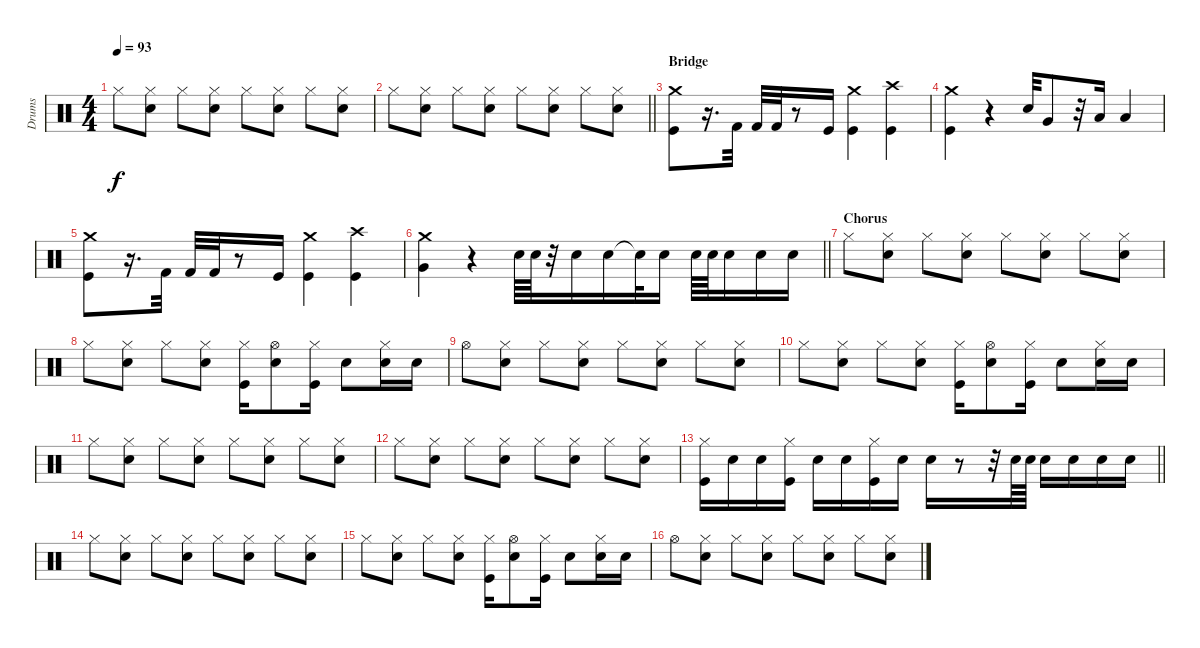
\track ("Drums" "Drums") {instrument percussion}
\staff {score}
\articulation defaults
\ts (4 4)
\tempo 93
\clef neutral
\ks c "Hi-Hat (closed)".8{dy f}
("Hi-Hat (closed)" "Snare (hit) 2").8 "Hi-Hat (closed)".8 ("Hi-Hat (closed)" "Snare (hit) 2").8 "Hi-Hat (closed)".8 ("Hi-Hat (closed)" "Snare (hit) 2").8 "Hi-Hat (closed)".8 ("Hi-Hat (closed)" "Snare (hit) 2").8 |
\barLineRight lightlight "Hi-Hat (closed)".8
("Hi-Hat (closed)" "Snare (hit) 2").8 "Hi-Hat (closed)".8 ("Hi-Hat (closed)" "Snare (hit) 2").8 "Hi-Hat (closed)".8 ("Hi-Hat (closed)" "Snare (hit) 2").8 "Hi-Hat (closed)".8 ("Hi-Hat (closed)" "Snare (hit) 2").8 |
\section ("" "Bridge")
("Kick (hit)" "Crash medium (hit)").8 r.16{d} "Kick (hit) 2".32 "Kick (hit) 2".32 "Kick (hit) 2".32 r.8 "Kick (hit)".16 ("Kick (hit)" "Crash medium (hit)").4 ("Kick (hit)" "Crash high (hit)").4 |
("Kick (hit)" "Crash medium (hit)").4 r.4 "Snare (hit) 2".32 "Very Low Tom (hit)".8 r.32 "Low Tom (hit)".16 "Low Floor Tom (hit)".4 |
("Kick (hit)" "Crash medium (hit)").8 r.16{d} "Kick (hit) 2".32 "Kick (hit) 2".32 "Kick (hit) 2".32 r.8 "Kick (hit)".16 ("Kick (hit)" "Crash medium (hit)").4 ("Kick (hit)" "Crash high (hit)").4 |
\barLineRight lightlight
("Crash medium (hit)" "Very Low Tom (hit)").4 r.4 "Electric Snare (hit)".64 "Electric Snare (hit)".64 r.32 "Electric Snare (hit)".16 "Electric Snare (hit)".16 "Snare (hit)"{t}.32 "Electric Snare (hit)".16 "Electric Snare (hit)".64 "Electric Snare (hit)".64 "Electric Snare (hit)".16 "Electric Snare (hit)".16 "Electric Snare (hit)".16 |
\section ("" "Chorus")
"Hi-Hat (closed)".8 ("Hi-Hat (closed)" "Snare (hit) 2").8 "Hi-Hat (closed)".8 ("Hi-Hat (closed)" "Snare (hit) 2").8 "Hi-Hat (closed)".8 ("Hi-Hat (closed)" "Snare (hit) 2").8 "Hi-Hat (closed)".8 ("Hi-Hat (closed)" "Snare (hit) 2").8 |
"Hi-Hat (closed)".8 ("Hi-Hat (closed)" "Snare (hit) 2").8 "Hi-Hat (closed)".8 ("Hi-Hat (closed)" "Snare (hit) 2").8 ("Hi-Hat (closed)" "Kick (hit)").16 ("Hi-Hat (open)" "Electric Snare (hit)").8 ("Hi-Hat (closed)" "Kick (hit)").16 "Electric Snare (hit)".8 ("Hi-Hat (closed)" "Electric Snare (hit)").16 "Electric Snare (hit)".16 |
"Hi-Hat (open)".8 ("Hi-Hat (closed)" "Snare (hit) 2").8 "Hi-Hat (closed)".8 ("Hi-Hat (closed)" "Snare (hit) 2").8 "Hi-Hat (closed)".8 ("Hi-Hat (closed)" "Snare (hit) 2").8 "Hi-Hat (closed)".8 ("Hi-Hat (closed)" "Snare (hit) 2").8 |
"Hi-Hat (closed)".8 ("Hi-Hat (closed)" "Snare (hit) 2").8 "Hi-Hat (closed)".8 ("Hi-Hat (closed)" "Snare (hit) 2").8 ("Hi-Hat (closed)" "Kick (hit)").16 ("Hi-Hat (open)" "Electric Snare (hit)").8 ("Hi-Hat (closed)" "Kick (hit)").16 "Electric Snare (hit)".8 ("Hi-Hat (closed)" "Electric Snare (hit)").16 "Electric Snare (hit)".16 |
"Hi-Hat (closed)".8 ("Hi-Hat (closed)" "Snare (hit) 2").8 "Hi-Hat (closed)".8 ("Hi-Hat (closed)" "Snare (hit) 2").8 "Hi-Hat (closed)".8 ("Hi-Hat (closed)" "Snare (hit) 2").8 "Hi-Hat (closed)".8 ("Hi-Hat (closed)" "Snare (hit) 2").8 |
"Hi-Hat (closed)".8 ("Hi-Hat (closed)" "Snare (hit) 2").8 "Hi-Hat (closed)".8 ("Hi-Hat (closed)" "Snare (hit) 2").8 "Hi-Hat (closed)".8 ("Hi-Hat (closed)" "Snare (hit) 2").8 "Hi-Hat (closed)".8 ("Hi-Hat (closed)" "Snare (hit) 2").8 |
\barLineRight lightlight
("Hi-Hat (closed)" "Kick (hit)").16 "Electric Snare (hit)".16 "Electric Snare (hit)".16 ("Hi-Hat (closed)" "Kick (hit)").16 "Electric Snare (hit)".16 "Electric Snare (hit)".16 ("Hi-Hat (closed)" "Kick (hit)").16 "Electric Snare (hit)".16 "Electric Snare (hit)".16 r.8 r.32 "Electric Snare (hit)".64 "Electric Snare (hit)".64 "Electric Snare (hit)".16 "Electric Snare (hit)".16 "Electric Snare (hit)".16 "Electric Snare (hit)".16 |
"Hi-Hat (closed)".8 ("Hi-Hat (closed)" "Snare (hit) 2").8 "Hi-Hat (closed)".8 ("Hi-Hat (closed)" "Snare (hit) 2").8 "Hi-Hat (closed)".8 ("Hi-Hat (closed)" "Snare (hit) 2").8 "Hi-Hat (closed)".8 ("Hi-Hat (closed)" "Snare (hit) 2").8 |
"Hi-Hat (closed)".8 ("Hi-Hat (closed)" "Snare (hit) 2").8 "Hi-Hat (closed)".8 ("Hi-Hat (closed)" "Snare (hit) 2").8 ("Hi-Hat (closed)" "Kick (hit)").16 ("Hi-Hat (open)" "Electric Snare (hit)").8 ("Hi-Hat (closed)" "Kick (hit)").16 "Electric Snare (hit)".8 ("Hi-Hat (closed)" "Electric Snare (hit)").16 "Electric Snare (hit)".16 |
"Hi-Hat (open)".8 ("Hi-Hat (closed)" "Snare (hit) 2").8 "Hi-Hat (closed)".8 ("Hi-Hat (closed)" "Snare (hit) 2").8 "Hi-Hat (closed)".8 ("Hi-Hat (closed)" "Snare (hit) 2").8 "Hi-Hat (closed)".8 ("Hi-Hat (closed)" "Snare (hit) 2").8
